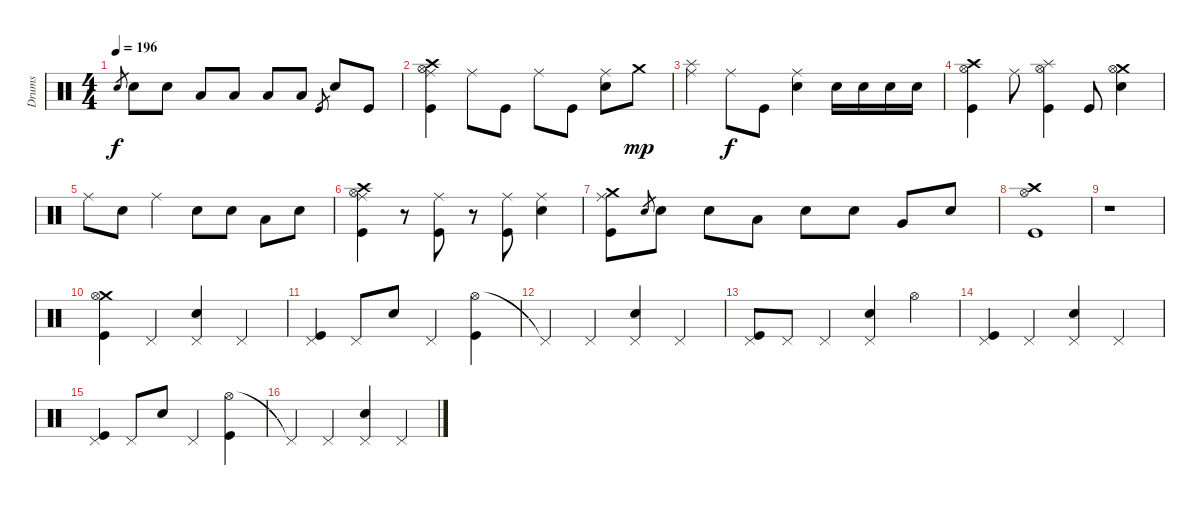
\track ("Drums" "Drums") {instrument percussion}
\staff {score}
\articulation defaults
\ts (4 4)
\tempo 196
\clef neutral
\ks c "Electric Snare (hit)".8{gr dy f} "Electric Snare (hit)".8 "Electric Snare (hit)".8 "Low Tom (hit)".8 "Low Tom (hit)".8 "Low Tom (hit)".8 "Low Tom (hit)".8 "Kick (hit)".8{gr} "Electric Snare (hit)".8 "Kick (hit)".8
|
("Ride (middle)" "Crash high (hit)" "Hi-Hat (open)" "Kick (hit)").4 "Ride (middle)".8 "Kick (hit)".8 "Ride (middle)".8 "Kick (hit)".8 ("Ride (middle)" "Electric Snare (hit)").8 "Crash medium (hit)".8{dy mp} |
("Ride (middle)" "Splash (hit)").4 "Ride (middle)".8{dy f} "Kick (hit)".8 ("Ride (middle)" "Electric Snare (hit)").4 "Electric Snare (hit)".16 "Electric Snare (hit)".16 "Electric Snare (hit)".16 "Electric Snare (hit)".16 |
("Crash high (hit)" "Hi-Hat (open)" "Kick (hit)").4 "Ride (middle)".8 ("Splash (hit)" "Hi-Hat (open)" "Kick (hit)").4 "Kick (hit)".8 ("Crash medium (hit)" "Hi-Hat (open)" "Electric Snare (hit)").4 |
"Ride (middle)".8 "Electric Snare (hit)".8 "Ride (middle)".4 "Electric Snare (hit)".8 "Electric Snare (hit)".8 "Low Tom (hit)".8 "Electric Snare (hit)".8 |
("Ride (middle)" "Crash high (hit)" "Hi-Hat (open)" "Kick (hit)").4 r.8 ("Ride (middle)" "Kick (hit)").8 r.8 ("Ride (middle)" "Kick (hit)").8 ("Ride (middle)" "Electric Snare (hit)").4 |
("Crash medium (hit)" "Ride (middle)" "Kick (hit)").8 "Electric Snare (hit)".8{gr} "Electric Snare (hit)".8 "Electric Snare (hit)".8 "Low Tom (hit)".8 "Electric Snare (hit)".8 "Electric Snare (hit)".8 "Very Low Tom (hit)".8 "Electric Snare (hit)".8 |
("Crash high (hit)" "Hi-Hat (open)" "Kick (hit)").1 |
r.1 |
("Crash medium (hit)" "Hi-Hat (open)" "Kick (hit)").4 "Pedal Hi-Hat (hit)".4 ("Pedal Hi-Hat (hit)" "Electric Snare (hit)").4 "Pedal Hi-Hat (hit)".4 |
("Pedal Hi-Hat (hit)" "Kick (hit)").4 "Pedal Hi-Hat (hit)".8 "Electric Snare (hit)".8 "Pedal Hi-Hat (hit)".4 ("Hi-Hat (open)" "Kick (hit)").4 |
"Pedal Hi-Hat (hit)"{t}.4 "Pedal Hi-Hat (hit)".4 ("Pedal Hi-Hat (hit)" "Electric Snare (hit)").4 "Pedal Hi-Hat (hit)".4 |
("Pedal Hi-Hat (hit)" "Kick (hit)").8 "Pedal Hi-Hat (hit)".8 "Pedal Hi-Hat (hit)".4 ("Pedal Hi-Hat (hit)" "Electric Snare (hit)").4 "Hi-Hat (open)".4 |
("Pedal Hi-Hat (hit)" "Kick (hit)").4 "Pedal Hi-Hat (hit)".4 ("Pedal Hi-Hat (hit)" "Electric Snare (hit)").4 "Pedal Hi-Hat (hit)".4 |
("Pedal Hi-Hat (hit)" "Kick (hit)").4 "Pedal Hi-Hat (hit)".8 "Electric Snare (hit)".8 "Pedal Hi-Hat (hit)".4 ("Hi-Hat (open)" "Kick (hit)").4 |
"Pedal Hi-Hat (hit)"{t}.4 "Pedal Hi-Hat (hit)".4 ("Pedal Hi-Hat (hit)" "Electric Snare (hit)").4 "Pedal Hi-Hat (hit)".4
